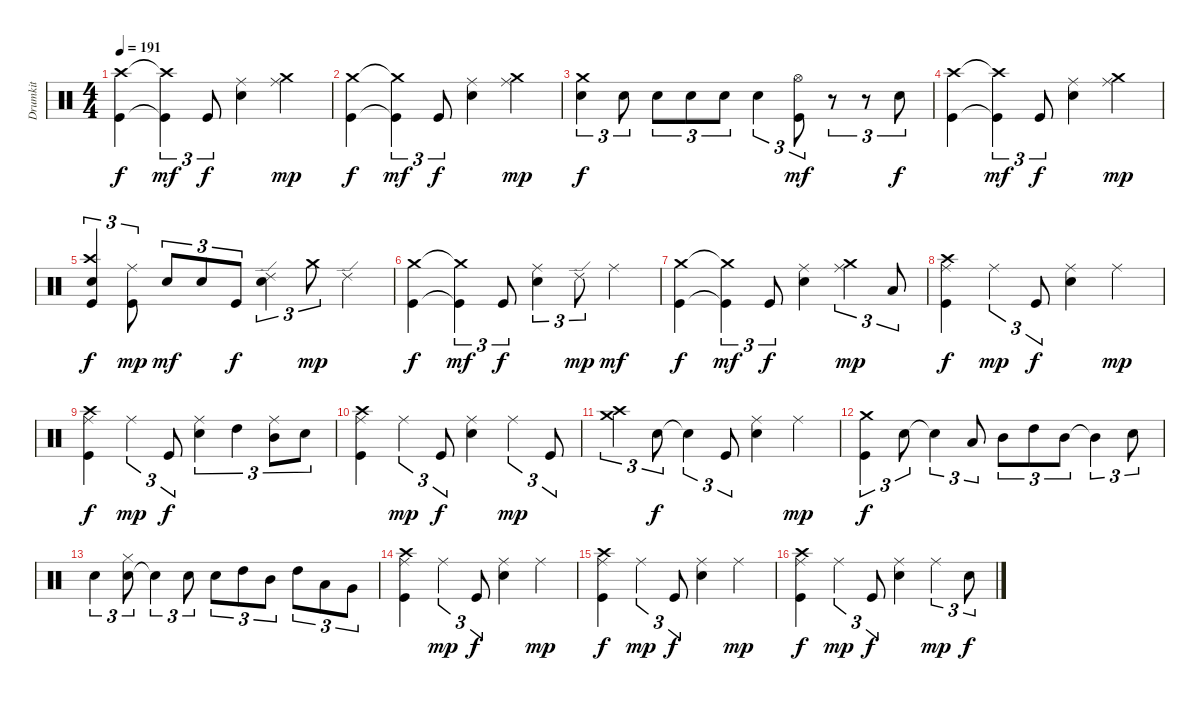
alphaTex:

\track ("Drumkit" "Drumkit") {instrument percussion}
\staff {score}
\articulation defaults
\ts (4 4)
\tempo 191
\clef neutral
\ks c
("Kick (hit)" "Crash high (hit)").4{dy f} ("Kick (hit)"{t} "Crash high (hit)"{t}).4{tu (3 2) dy mf} "Kick (hit)".8{tu (3 2) dy f} ("Snare (hit) 2" "Ride (middle)").4 ("Crash medium (hit)" "Ride (middle)").4{dy mp} |
("Kick (hit)" "Crash medium (hit)").4{dy f} ("Kick (hit)"{t} "Crash medium (hit)"{t}).4{tu (3 2) dy mf} "Kick (hit)".8{tu (3 2) dy f} ("Snare (hit) 2" "Ride (middle)").4 ("Crash medium (hit)" "Ride (middle)").4{dy mp} |
("Snare (hit) 2" "Crash medium (hit)").4{tu (3 2) dy f} "Snare (hit) 2".8{tu (3 2)} "Snare (hit) 2".8{tu (3 2)} "Snare (hit) 2".8{tu (3 2)} "Snare (hit) 2".8{tu (3 2)} "Snare (hit) 2".4{tu (3 2)} ("Kick (hit)" "Hi-Hat (open)").8{tu (3 2) dy mf} r.8{tu (3 2)} r.8{tu (3 2)} "Snare (hit) 2".8{tu (3 2) dy f} |
("Kick (hit)" "Crash high (hit)").4 ("Kick (hit)"{t} "Crash high (hit)"{t}).4{tu (3 2) dy mf} "Kick (hit)".8{tu (3 2) dy f} ("Snare (hit) 2" "Ride (middle)").4 ("Crash medium (hit)" "Ride (middle)").4{dy mp} |
("Kick (hit)" "Crash high (hit)" "Snare (hit) 2").4{tu (3 2) dy f} ("Ride (middle)" "Kick (hit)").8{tu (3 2) dy mp} "Snare (hit) 2".8{tu (3 2) dy mf} "Snare (hit) 2".8{tu (3 2)} "Kick (hit)".8{tu (3 2) dy f} ("Snare (hit) 2" "Ride (edge) 2").4{tu (3 2)} "Crash medium (hit)".8{tu (3 2) dy mp} "Ride (edge) 2".4 |
("Kick (hit)" "Crash medium (hit)").4{dy f} ("Kick (hit)"{t} "Crash medium (hit)"{t}).4{tu (3 2) dy mf} "Kick (hit)".8{tu (3 2) dy f} ("Snare (hit) 2" "Ride (middle)").4{tu (3 2)} "Ride (edge) 2".8{tu (3 2) dy mp} "Ride (middle)".4{dy mf} |
("Kick (hit)" "Crash medium (hit)").4{dy f} ("Kick (hit)"{t} "Crash medium (hit)"{t}).4{tu (3 2) dy mf} "Kick (hit)".8{tu (3 2) dy f} ("Snare (hit) 2" "Ride (middle)").4 ("Crash medium (hit)" "Ride (middle)").4{tu (3 2) dy mp} "Low Tom (hit)".8{tu (3 2)} |
("Kick (hit)" "Crash high (hit)" "Ride (middle)").4{dy f} "Ride (middle)".4{tu (3 2) dy mp} "Kick (hit)".8{tu (3 2) dy f} ("Snare (hit) 2" "Ride (middle)").4 "Ride (middle)".4{dy mp} |
("Kick (hit)" "Crash high (hit)" "Ride (middle)").4{dy f} "Ride (middle)".4{tu (3 2) dy mp} "Kick (hit)".8{tu (3 2) dy f} ("Snare (hit) 2" "Ride (middle)").4{tu (3 2)} "High Tom (hit)".4{tu (3 2)} ("Mid Tom (hit)" "Ride (middle)").8{tu (3 2)} "Snare (hit) 2".8{tu (3 2)} |
("Kick (hit)" "Crash high (hit)" "Ride (middle)").4 "Ride (middle)".4{tu (3 2) dy mp} "Kick (hit)".8{tu (3 2) dy f} ("Snare (hit) 2" "Ride (middle)").4 "Ride (middle)".4{tu (3 2) dy mp} "Kick (hit)".8{tu (3 2)} |
("Crash high (hit)" "Crash medium (hit)").4{tu (3 2)} "Snare (hit) 2".8{tu (3 2) dy f} "Snare (hit) 2"{t}.4{tu (3 2)} "Kick (hit)".8{tu (3 2)} ("Snare (hit) 2" "Ride (middle)").4 "Ride (middle)".4{dy mp} |
("Kick (hit)" "Crash medium (hit)").4{tu (3 2) dy f} "Snare (hit) 2".8{tu (3 2)} "Snare (hit) 2"{t}.4{tu (3 2)} "Low Tom (hit)".8{tu (3 2)} "Mid Tom (hit)".8{tu (3 2)} "High Tom (hit)".8{tu (3 2)} "Mid Tom (hit)".8{tu (3 2)} "Mid Tom (hit)"{t}.4{tu (3 2)} "Snare (hit) 2".8{tu (3 2)} |
"Snare (hit) 2".4{tu (3 2)} ("Snare (hit) 2" "Hi-Hat (closed)").8{tu (3 2)} "Snare (hit) 2"{t}.4{tu (3 2)} "Snare (hit) 2".8{tu (3 2)} "Snare (hit) 2".8{tu (3 2)} "High Tom (hit)".8{tu (3 2)} "Mid Tom (hit)".8{tu (3 2)} "High Tom (hit)".8{tu (3 2)} "Low Tom (hit)".8{tu (3 2)} "Very Low Tom (hit)".8{tu (3 2)} |
("Kick (hit)" "Crash high (hit)" "Ride (middle)").4 "Ride (middle)".4{tu (3 2) dy mp} "Kick (hit)".8{tu (3 2) dy f} ("Snare (hit) 2" "Ride (middle)").4 "Ride (middle)".4{dy mp} |
("Kick (hit)" "Crash high (hit)" "Ride (middle)").4{dy f} "Ride (middle)".4{tu (3 2) dy mp} "Kick (hit)".8{tu (3 2) dy f} ("Snare (hit) 2" "Ride (middle)").4 "Ride (middle)".4{dy mp} |
("Kick (hit)" "Crash high (hit)" "Ride (middle)").4{dy f} "Ride (middle)".4{tu (3 2) dy mp} "Kick (hit)".8{tu (3 2) dy f} ("Snare (hit) 2" "Ride (middle)").4 "Ride (middle)".4{tu (3 2) dy mp} "Snare (hit) 2".8{tu (3 2) dy f}
